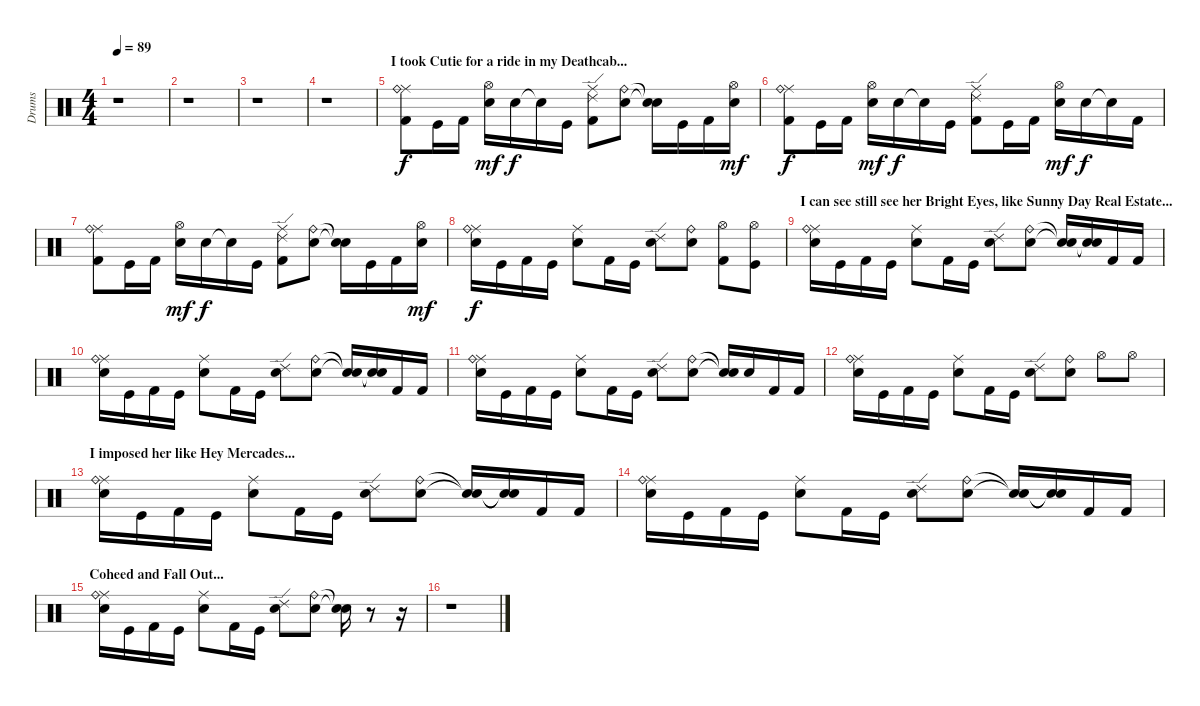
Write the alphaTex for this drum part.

\track ("Drums" "Drums") {instrument percussion}
\staff {score}
\articulation defaults
\ts (4 4)
\tempo 89
\clef neutral
\ks c
r.1{dy f} |
r.1 |
r.1 |
r.1 |
\section ("" "I took Cutie for a ride in my Deathcab...")
("Ride (middle)" "Ride (bell)" "Kick (hit) 2").8 "Kick (hit)".16 "Kick (hit) 2".16 ("Hi-Hat (open)" "Electric Snare (hit)").16{dy mf} "Electric Snare (hit)".16{dy f} "Snare (hit)"{t}.16 "Kick (hit)".16 ("Ride (middle)" "Ride (edge) 2" "Kick (hit) 2").8 ("Ride (bell)" "Electric Snare (hit)").8 ("Snare (hit)"{t} "Snare (hit)"{t}).16 "Kick (hit)".16 "Kick (hit) 2".16 ("Hi-Hat (open)" "Electric Snare (hit)").16{dy mf} |
("Ride (middle)" "Ride (bell)" "Kick (hit) 2").8{dy f} "Kick (hit)".16 "Kick (hit) 2".16 ("Hi-Hat (open)" "Electric Snare (hit)").16{dy mf} "Electric Snare (hit)".16{dy f} "Snare (hit)"{t}.16 "Kick (hit)".16 ("Ride (middle)" "Ride (edge) 2" "Kick (hit) 2").8 "Kick (hit)".16 "Kick (hit) 2".16 ("Hi-Hat (open)" "Electric Snare (hit)").16{dy mf} "Electric Snare (hit)".16{dy f} "Snare (hit)"{t}.16 "Kick (hit) 2".16 |
("Ride (middle)" "Ride (bell)" "Kick (hit) 2").8 "Kick (hit)".16 "Kick (hit) 2".16 ("Hi-Hat (open)" "Electric Snare (hit)").16{dy mf} "Electric Snare (hit)".16{dy f} "Snare (hit)"{t}.16 "Kick (hit)".16 ("Ride (middle)" "Ride (edge) 2" "Kick (hit) 2").8 ("Ride (bell)" "Electric Snare (hit)").8 ("Snare (hit)"{t} "Snare (hit)"{t}).16 "Kick (hit)".16 "Kick (hit) 2".16 ("Hi-Hat (open)" "Electric Snare (hit)").16{dy mf} |
("Ride (middle)" "Ride (bell)" "Snare (hit) 2").16{dy f} "Kick (hit)".16 "Kick (hit) 2".16 "Kick (hit)".16 ("Ride (middle)" "Electric Snare (hit)").8 "Kick (hit) 2".16 "Kick (hit)".16 ("Ride (edge) 2" "Snare (hit) 2").8 ("Ride (bell)" "Electric Snare (hit)").8 ("Hi-Hat (open)" "Kick (hit) 2").8 ("Hi-Hat (open)" "Kick (hit)").8 |
\section ("" "I can see still see her Bright Eyes, like Sunny Day Real Estate...")
("Ride (middle)" "Ride (bell)" "Snare (hit) 2").16 "Kick (hit)".16 "Kick (hit) 2".16 "Kick (hit)".16 ("Ride (middle)" "Electric Snare (hit)").8 "Kick (hit) 2".16 "Kick (hit)".16 ("Ride (edge) 2" "Snare (hit) 2").8 ("Ride (bell)" "Electric Snare (hit)").8 ("Snare (hit)"{t} "Snare (hit)"{t}).16 ("Snare (hit)"{t} "Snare (hit)"{t}).16 "Kick (hit) 2".16 "Kick (hit) 2".16 |
("Ride (middle)" "Ride (bell)" "Snare (hit) 2").16 "Kick (hit)".16 "Kick (hit) 2".16 "Kick (hit)".16 ("Ride (middle)" "Electric Snare (hit)").8 "Kick (hit) 2".16 "Kick (hit)".16 ("Ride (edge) 2" "Snare (hit) 2").8 ("Ride (bell)" "Electric Snare (hit)").8 ("Snare (hit)"{t} "Snare (hit)"{t}).16 ("Snare (hit)"{t} "Snare (hit)"{t}).16 "Kick (hit) 2".16 "Kick (hit) 2".16 |
("Ride (middle)" "Ride (bell)" "Snare (hit) 2").16 "Kick (hit)".16 "Kick (hit) 2".16 "Kick (hit)".16 ("Ride (middle)" "Electric Snare (hit)").8 "Kick (hit) 2".16 "Kick (hit)".16 ("Ride (edge) 2" "Snare (hit) 2").8 ("Ride (bell)" "Electric Snare (hit)").8 ("Snare (hit)"{t} "Snare (hit)"{t}).16 "Snare (hit) 2".16 "Kick (hit) 2".16 "Kick (hit) 2".16 |
("Ride (middle)" "Ride (bell)" "Snare (hit) 2").16 "Kick (hit)".16 "Kick (hit) 2".16 "Kick (hit)".16 ("Ride (middle)" "Electric Snare (hit)").8 "Kick (hit) 2".16 "Kick (hit)".16 ("Ride (edge) 2" "Snare (hit) 2").8 ("Ride (bell)" "Electric Snare (hit)").8 "Hi-Hat (open)".8 "Hi-Hat (open)".8 |
\section ("" "I imposed her like Hey Mercades...")
("Ride (middle)" "Ride (bell)" "Snare (hit) 2").16 "Kick (hit)".16 "Kick (hit) 2".16 "Kick (hit)".16 ("Ride (middle)" "Electric Snare (hit)").8 "Kick (hit) 2".16 "Kick (hit)".16 ("Ride (edge) 2" "Snare (hit) 2").8 ("Ride (bell)" "Electric Snare (hit)").8 ("Snare (hit)"{t} "Snare (hit)"{t}).16 ("Snare (hit)"{t} "Snare (hit)"{t}).16 "Kick (hit) 2".16 "Kick (hit) 2".16 |
("Ride (middle)" "Ride (bell)" "Snare (hit) 2").16 "Kick (hit)".16 "Kick (hit) 2".16 "Kick (hit)".16 ("Ride (middle)" "Electric Snare (hit)").8 "Kick (hit) 2".16 "Kick (hit)".16 ("Ride (edge) 2" "Snare (hit) 2").8 ("Ride (bell)" "Electric Snare (hit)").8 ("Snare (hit)"{t} "Snare (hit)"{t}).16 ("Snare (hit)"{t} "Snare (hit)"{t}).16 "Kick (hit) 2".16 "Kick (hit) 2".16 |
\section ("" "Coheed and Fall Out...")
("Ride (middle)" "Ride (bell)" "Snare (hit) 2").16 "Kick (hit)".16 "Kick (hit) 2".16 "Kick (hit)".16 ("Ride (middle)" "Electric Snare (hit)").8 "Kick (hit) 2".16 "Kick (hit)".16 ("Ride (edge) 2" "Snare (hit) 2").8 ("Ride (bell)" "Electric Snare (hit)").8 ("Snare (hit)"{t} "Snare (hit)"{t}).16 r.8 r.16 |
r.1
